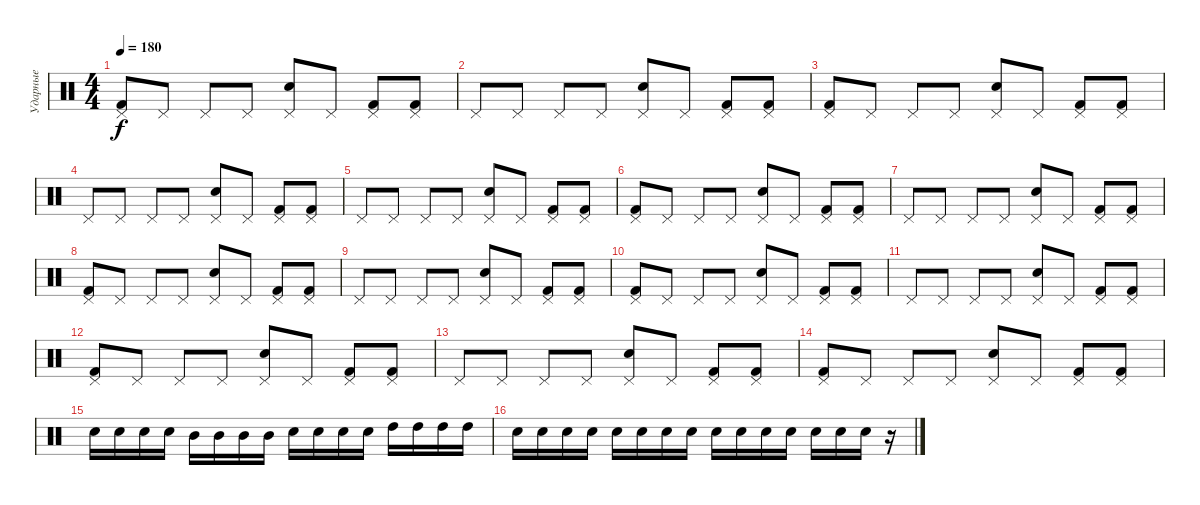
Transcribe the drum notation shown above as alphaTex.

\track ("Ударные" "Ударные") {instrument percussion}
\staff {score}
\articulation defaults
\ts (4 4)
\tempo 180
\clef neutral
\ks c
("Pedal Hi-Hat (hit)" "Kick (hit) 2").8{dy f} "Pedal Hi-Hat (hit)".8 "Pedal Hi-Hat (hit)".8 "Pedal Hi-Hat (hit)".8 ("Pedal Hi-Hat (hit)" "Electric Snare (hit)").8 "Pedal Hi-Hat (hit)".8 ("Pedal Hi-Hat (hit)" "Kick (hit) 2").8 ("Pedal Hi-Hat (hit)" "Kick (hit) 2").8 |
"Pedal Hi-Hat (hit)".8 "Pedal Hi-Hat (hit)".8 "Pedal Hi-Hat (hit)".8 "Pedal Hi-Hat (hit)".8 ("Pedal Hi-Hat (hit)" "Electric Snare (hit)").8 "Pedal Hi-Hat (hit)".8 ("Pedal Hi-Hat (hit)" "Kick (hit) 2").8 ("Pedal Hi-Hat (hit)" "Kick (hit) 2").8 |
("Pedal Hi-Hat (hit)" "Kick (hit) 2").8 "Pedal Hi-Hat (hit)".8 "Pedal Hi-Hat (hit)".8 "Pedal Hi-Hat (hit)".8 ("Pedal Hi-Hat (hit)" "Electric Snare (hit)").8 "Pedal Hi-Hat (hit)".8 ("Pedal Hi-Hat (hit)" "Kick (hit) 2").8 ("Pedal Hi-Hat (hit)" "Kick (hit) 2").8 |
"Pedal Hi-Hat (hit)".8 "Pedal Hi-Hat (hit)".8 "Pedal Hi-Hat (hit)".8 "Pedal Hi-Hat (hit)".8 ("Pedal Hi-Hat (hit)" "Electric Snare (hit)").8 "Pedal Hi-Hat (hit)".8 ("Pedal Hi-Hat (hit)" "Kick (hit) 2").8 ("Pedal Hi-Hat (hit)" "Kick (hit) 2").8 |
"Pedal Hi-Hat (hit)".8 "Pedal Hi-Hat (hit)".8 "Pedal Hi-Hat (hit)".8 "Pedal Hi-Hat (hit)".8 ("Pedal Hi-Hat (hit)" "Electric Snare (hit)").8 "Pedal Hi-Hat (hit)".8 ("Pedal Hi-Hat (hit)" "Kick (hit) 2").8 ("Pedal Hi-Hat (hit)" "Kick (hit) 2").8 |
("Pedal Hi-Hat (hit)" "Kick (hit) 2").8 "Pedal Hi-Hat (hit)".8 "Pedal Hi-Hat (hit)".8 "Pedal Hi-Hat (hit)".8 ("Pedal Hi-Hat (hit)" "Electric Snare (hit)").8 "Pedal Hi-Hat (hit)".8 ("Pedal Hi-Hat (hit)" "Kick (hit) 2").8 ("Pedal Hi-Hat (hit)" "Kick (hit) 2").8 |
"Pedal Hi-Hat (hit)".8 "Pedal Hi-Hat (hit)".8 "Pedal Hi-Hat (hit)".8 "Pedal Hi-Hat (hit)".8 ("Pedal Hi-Hat (hit)" "Electric Snare (hit)").8 "Pedal Hi-Hat (hit)".8 ("Pedal Hi-Hat (hit)" "Kick (hit) 2").8 ("Pedal Hi-Hat (hit)" "Kick (hit) 2").8 |
("Pedal Hi-Hat (hit)" "Kick (hit) 2").8 "Pedal Hi-Hat (hit)".8 "Pedal Hi-Hat (hit)".8 "Pedal Hi-Hat (hit)".8 ("Pedal Hi-Hat (hit)" "Electric Snare (hit)").8 "Pedal Hi-Hat (hit)".8 ("Pedal Hi-Hat (hit)" "Kick (hit) 2").8 ("Pedal Hi-Hat (hit)" "Kick (hit) 2").8 |
"Pedal Hi-Hat (hit)".8 "Pedal Hi-Hat (hit)".8 "Pedal Hi-Hat (hit)".8 "Pedal Hi-Hat (hit)".8 ("Pedal Hi-Hat (hit)" "Electric Snare (hit)").8 "Pedal Hi-Hat (hit)".8 ("Pedal Hi-Hat (hit)" "Kick (hit) 2").8 ("Pedal Hi-Hat (hit)" "Kick (hit) 2").8 |
("Pedal Hi-Hat (hit)" "Kick (hit) 2").8 "Pedal Hi-Hat (hit)".8 "Pedal Hi-Hat (hit)".8 "Pedal Hi-Hat (hit)".8 ("Pedal Hi-Hat (hit)" "Electric Snare (hit)").8 "Pedal Hi-Hat (hit)".8 ("Pedal Hi-Hat (hit)" "Kick (hit) 2").8 ("Pedal Hi-Hat (hit)" "Kick (hit) 2").8 |
"Pedal Hi-Hat (hit)".8 "Pedal Hi-Hat (hit)".8 "Pedal Hi-Hat (hit)".8 "Pedal Hi-Hat (hit)".8 ("Pedal Hi-Hat (hit)" "Electric Snare (hit)").8 "Pedal Hi-Hat (hit)".8 ("Pedal Hi-Hat (hit)" "Kick (hit) 2").8 ("Pedal Hi-Hat (hit)" "Kick (hit) 2").8 |
("Pedal Hi-Hat (hit)" "Kick (hit) 2").8 "Pedal Hi-Hat (hit)".8 "Pedal Hi-Hat (hit)".8 "Pedal Hi-Hat (hit)".8 ("Pedal Hi-Hat (hit)" "Electric Snare (hit)").8 "Pedal Hi-Hat (hit)".8 ("Pedal Hi-Hat (hit)" "Kick (hit) 2").8 ("Pedal Hi-Hat (hit)" "Kick (hit) 2").8 |
"Pedal Hi-Hat (hit)".8 "Pedal Hi-Hat (hit)".8 "Pedal Hi-Hat (hit)".8 "Pedal Hi-Hat (hit)".8 ("Pedal Hi-Hat (hit)" "Electric Snare (hit)").8 "Pedal Hi-Hat (hit)".8 ("Pedal Hi-Hat (hit)" "Kick (hit) 2").8 ("Pedal Hi-Hat (hit)" "Kick (hit) 2").8 |
("Pedal Hi-Hat (hit)" "Kick (hit) 2").8 "Pedal Hi-Hat (hit)".8 "Pedal Hi-Hat (hit)".8 "Pedal Hi-Hat (hit)".8 ("Pedal Hi-Hat (hit)" "Electric Snare (hit)").8 "Pedal Hi-Hat (hit)".8 ("Pedal Hi-Hat (hit)" "Kick (hit) 2").8 ("Pedal Hi-Hat (hit)" "Kick (hit) 2").8 |
"Electric Snare (hit)".16 "Electric Snare (hit)".16 "Electric Snare (hit)".16 "Electric Snare (hit)".16 "Mid Tom (hit)".16 "Mid Tom (hit)".16 "Mid Tom (hit)".16 "Mid Tom (hit)".16 "Electric Snare (hit)".16 "Electric Snare (hit)".16 "Electric Snare (hit)".16 "Electric Snare (hit)".16 "High Tom (hit)".16 "High Tom (hit)".16 "High Tom (hit)".16 "High Tom (hit)".16 |
"Electric Snare (hit)".16 "Electric Snare (hit)".16 "Electric Snare (hit)".16 "Electric Snare (hit)".16 "Electric Snare (hit)".16 "Electric Snare (hit)".16 "Electric Snare (hit)".16 "Electric Snare (hit)".16 "Electric Snare (hit)".16 "Electric Snare (hit)".16 "Electric Snare (hit)".16 "Electric Snare (hit)".16 "Electric Snare (hit)".16 "Electric Snare (hit)".16 "Electric Snare (hit)".16 r.16
